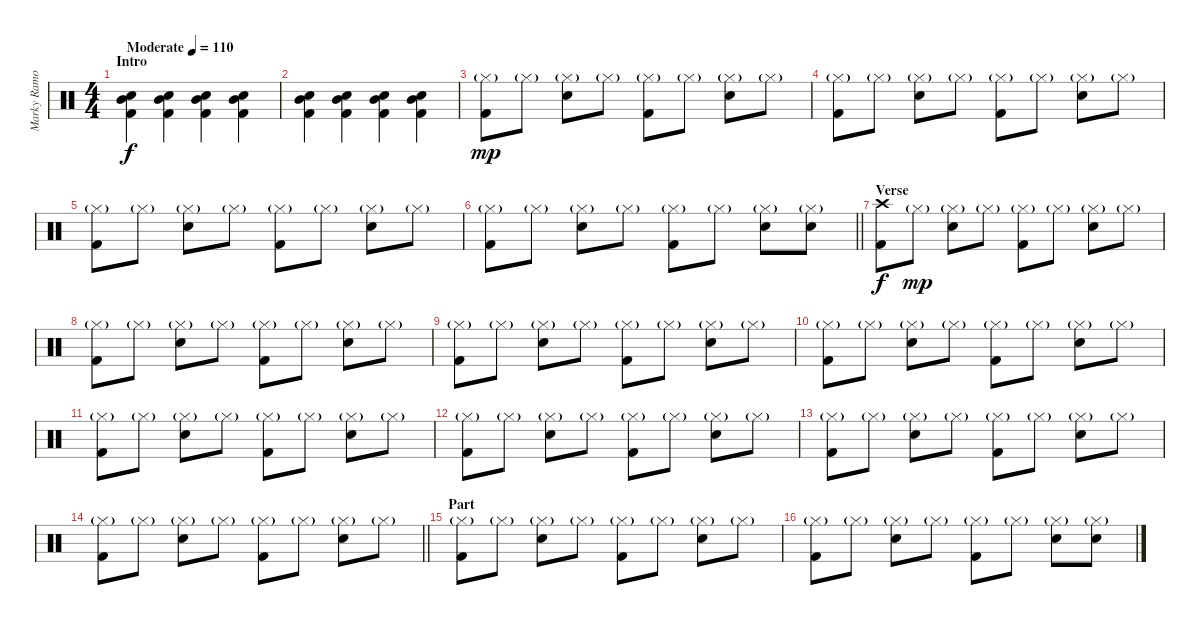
\track ("Marky Ramone-Drums" "Marky Ramo") {instrument percussion}
\staff
\articulation defaults
\ts (4 4)
\section ("" "Intro")
\tempo (110 "Moderate")
\clef neutral
\ks c
("Snare (hit) 2" "Kick (hit) 2" "Mid Tom (hit)").4{dy f} ("Snare (hit) 2" "Kick (hit) 2" "Mid Tom (hit)").4 ("Snare (hit) 2" "Kick (hit) 2" "Mid Tom (hit)").4 ("Snare (hit) 2" "Kick (hit) 2" "Mid Tom (hit)").4 |
("Snare (hit) 2" "Kick (hit) 2" "Mid Tom (hit)").4 ("Snare (hit) 2" "Kick (hit) 2" "Mid Tom (hit)").4 ("Snare (hit) 2" "Kick (hit) 2" "Mid Tom (hit)").4 ("Snare (hit) 2" "Kick (hit) 2" "Mid Tom (hit)").4 |
("Hi-Hat (closed)"{g} "Kick (hit) 2").8{dy mp} "Hi-Hat (closed)"{g}.8 ("Hi-Hat (closed)"{g} "Snare (hit) 2").8 "Hi-Hat (closed)"{g}.8 ("Hi-Hat (closed)"{g} "Kick (hit) 2").8 "Hi-Hat (closed)"{g}.8 ("Hi-Hat (closed)"{g} "Snare (hit) 2").8 "Hi-Hat (closed)"{g}.8 |
("Hi-Hat (closed)"{g} "Kick (hit) 2").8 "Hi-Hat (closed)"{g}.8 ("Hi-Hat (closed)"{g} "Snare (hit) 2").8 "Hi-Hat (closed)"{g}.8 ("Hi-Hat (closed)"{g} "Kick (hit) 2").8 "Hi-Hat (closed)"{g}.8 ("Hi-Hat (closed)"{g} "Snare (hit) 2").8 "Hi-Hat (closed)"{g}.8 |
("Hi-Hat (closed)"{g} "Kick (hit) 2").8 "Hi-Hat (closed)"{g}.8 ("Hi-Hat (closed)"{g} "Snare (hit) 2").8 "Hi-Hat (closed)"{g}.8 ("Hi-Hat (closed)"{g} "Kick (hit) 2").8 "Hi-Hat (closed)"{g}.8 ("Hi-Hat (closed)"{g} "Snare (hit) 2").8 "Hi-Hat (closed)"{g}.8 |
\barLineRight lightlight
("Hi-Hat (closed)"{g} "Kick (hit) 2").8 "Hi-Hat (closed)"{g}.8 ("Hi-Hat (closed)"{g} "Snare (hit) 2").8 "Hi-Hat (closed)"{g}.8 ("Hi-Hat (closed)"{g} "Kick (hit) 2").8 "Hi-Hat (closed)"{g}.8 ("Hi-Hat (closed)"{g} "Snare (hit) 2").8 ("Hi-Hat (closed)"{g} "Snare (hit) 2").8 |
\section ("" "Verse")
("Crash high (hit)" "Kick (hit) 2").8{dy f} "Hi-Hat (closed)"{g}.8{dy mp} ("Hi-Hat (closed)"{g} "Snare (hit) 2").8 "Hi-Hat (closed)"{g}.8 ("Hi-Hat (closed)"{g} "Kick (hit) 2").8 "Hi-Hat (closed)"{g}.8 ("Hi-Hat (closed)"{g} "Snare (hit) 2").8 "Hi-Hat (closed)"{g}.8 |
("Hi-Hat (closed)"{g} "Kick (hit) 2").8 "Hi-Hat (closed)"{g}.8 ("Hi-Hat (closed)"{g} "Snare (hit) 2").8 "Hi-Hat (closed)"{g}.8 ("Hi-Hat (closed)"{g} "Kick (hit) 2").8 "Hi-Hat (closed)"{g}.8 ("Hi-Hat (closed)"{g} "Snare (hit) 2").8 "Hi-Hat (closed)"{g}.8 |
("Hi-Hat (closed)"{g} "Kick (hit) 2").8 "Hi-Hat (closed)"{g}.8 ("Hi-Hat (closed)"{g} "Snare (hit) 2").8 "Hi-Hat (closed)"{g}.8 ("Hi-Hat (closed)"{g} "Kick (hit) 2").8 "Hi-Hat (closed)"{g}.8 ("Hi-Hat (closed)"{g} "Snare (hit) 2").8 "Hi-Hat (closed)"{g}.8 |
("Hi-Hat (closed)"{g} "Kick (hit) 2").8 "Hi-Hat (closed)"{g}.8 ("Hi-Hat (closed)"{g} "Snare (hit) 2").8 "Hi-Hat (closed)"{g}.8 ("Hi-Hat (closed)"{g} "Kick (hit) 2").8 "Hi-Hat (closed)"{g}.8 ("Hi-Hat (closed)"{g} "Snare (hit) 2").8 "Hi-Hat (closed)"{g}.8 |
("Hi-Hat (closed)"{g} "Kick (hit) 2").8 "Hi-Hat (closed)"{g}.8 ("Hi-Hat (closed)"{g} "Snare (hit) 2").8 "Hi-Hat (closed)"{g}.8 ("Hi-Hat (closed)"{g} "Kick (hit) 2").8 "Hi-Hat (closed)"{g}.8 ("Hi-Hat (closed)"{g} "Snare (hit) 2").8 "Hi-Hat (closed)"{g}.8 |
("Hi-Hat (closed)"{g} "Kick (hit) 2").8 "Hi-Hat (closed)"{g}.8 ("Hi-Hat (closed)"{g} "Snare (hit) 2").8 "Hi-Hat (closed)"{g}.8 ("Hi-Hat (closed)"{g} "Kick (hit) 2").8 "Hi-Hat (closed)"{g}.8 ("Hi-Hat (closed)"{g} "Snare (hit) 2").8 "Hi-Hat (closed)"{g}.8 |
("Hi-Hat (closed)"{g} "Kick (hit) 2").8 "Hi-Hat (closed)"{g}.8 ("Hi-Hat (closed)"{g} "Snare (hit) 2").8 "Hi-Hat (closed)"{g}.8 ("Hi-Hat (closed)"{g} "Kick (hit) 2").8 "Hi-Hat (closed)"{g}.8 ("Hi-Hat (closed)"{g} "Snare (hit) 2").8 "Hi-Hat (closed)"{g}.8 |
\barLineRight lightlight
("Hi-Hat (closed)"{g} "Kick (hit) 2").8 "Hi-Hat (closed)"{g}.8 ("Hi-Hat (closed)"{g} "Snare (hit) 2").8 "Hi-Hat (closed)"{g}.8 ("Hi-Hat (closed)"{g} "Kick (hit) 2").8 "Hi-Hat (closed)"{g}.8 ("Hi-Hat (closed)"{g} "Snare (hit) 2").8 "Hi-Hat (closed)"{g}.8 |
\section ("" "Part")
("Hi-Hat (closed)"{g} "Kick (hit) 2").8 "Hi-Hat (closed)"{g}.8 ("Hi-Hat (closed)"{g} "Snare (hit) 2").8 "Hi-Hat (closed)"{g}.8 ("Hi-Hat (closed)"{g} "Kick (hit) 2").8 "Hi-Hat (closed)"{g}.8 ("Hi-Hat (closed)"{g} "Snare (hit) 2").8 "Hi-Hat (closed)"{g}.8 |
("Hi-Hat (closed)"{g} "Kick (hit) 2").8 "Hi-Hat (closed)"{g}.8 ("Hi-Hat (closed)"{g} "Snare (hit) 2").8 "Hi-Hat (closed)"{g}.8 ("Hi-Hat (closed)"{g} "Kick (hit) 2").8 "Hi-Hat (closed)"{g}.8 ("Hi-Hat (closed)"{g} "Snare (hit) 2").8 ("Hi-Hat (closed)"{g} "Snare (hit) 2").8
